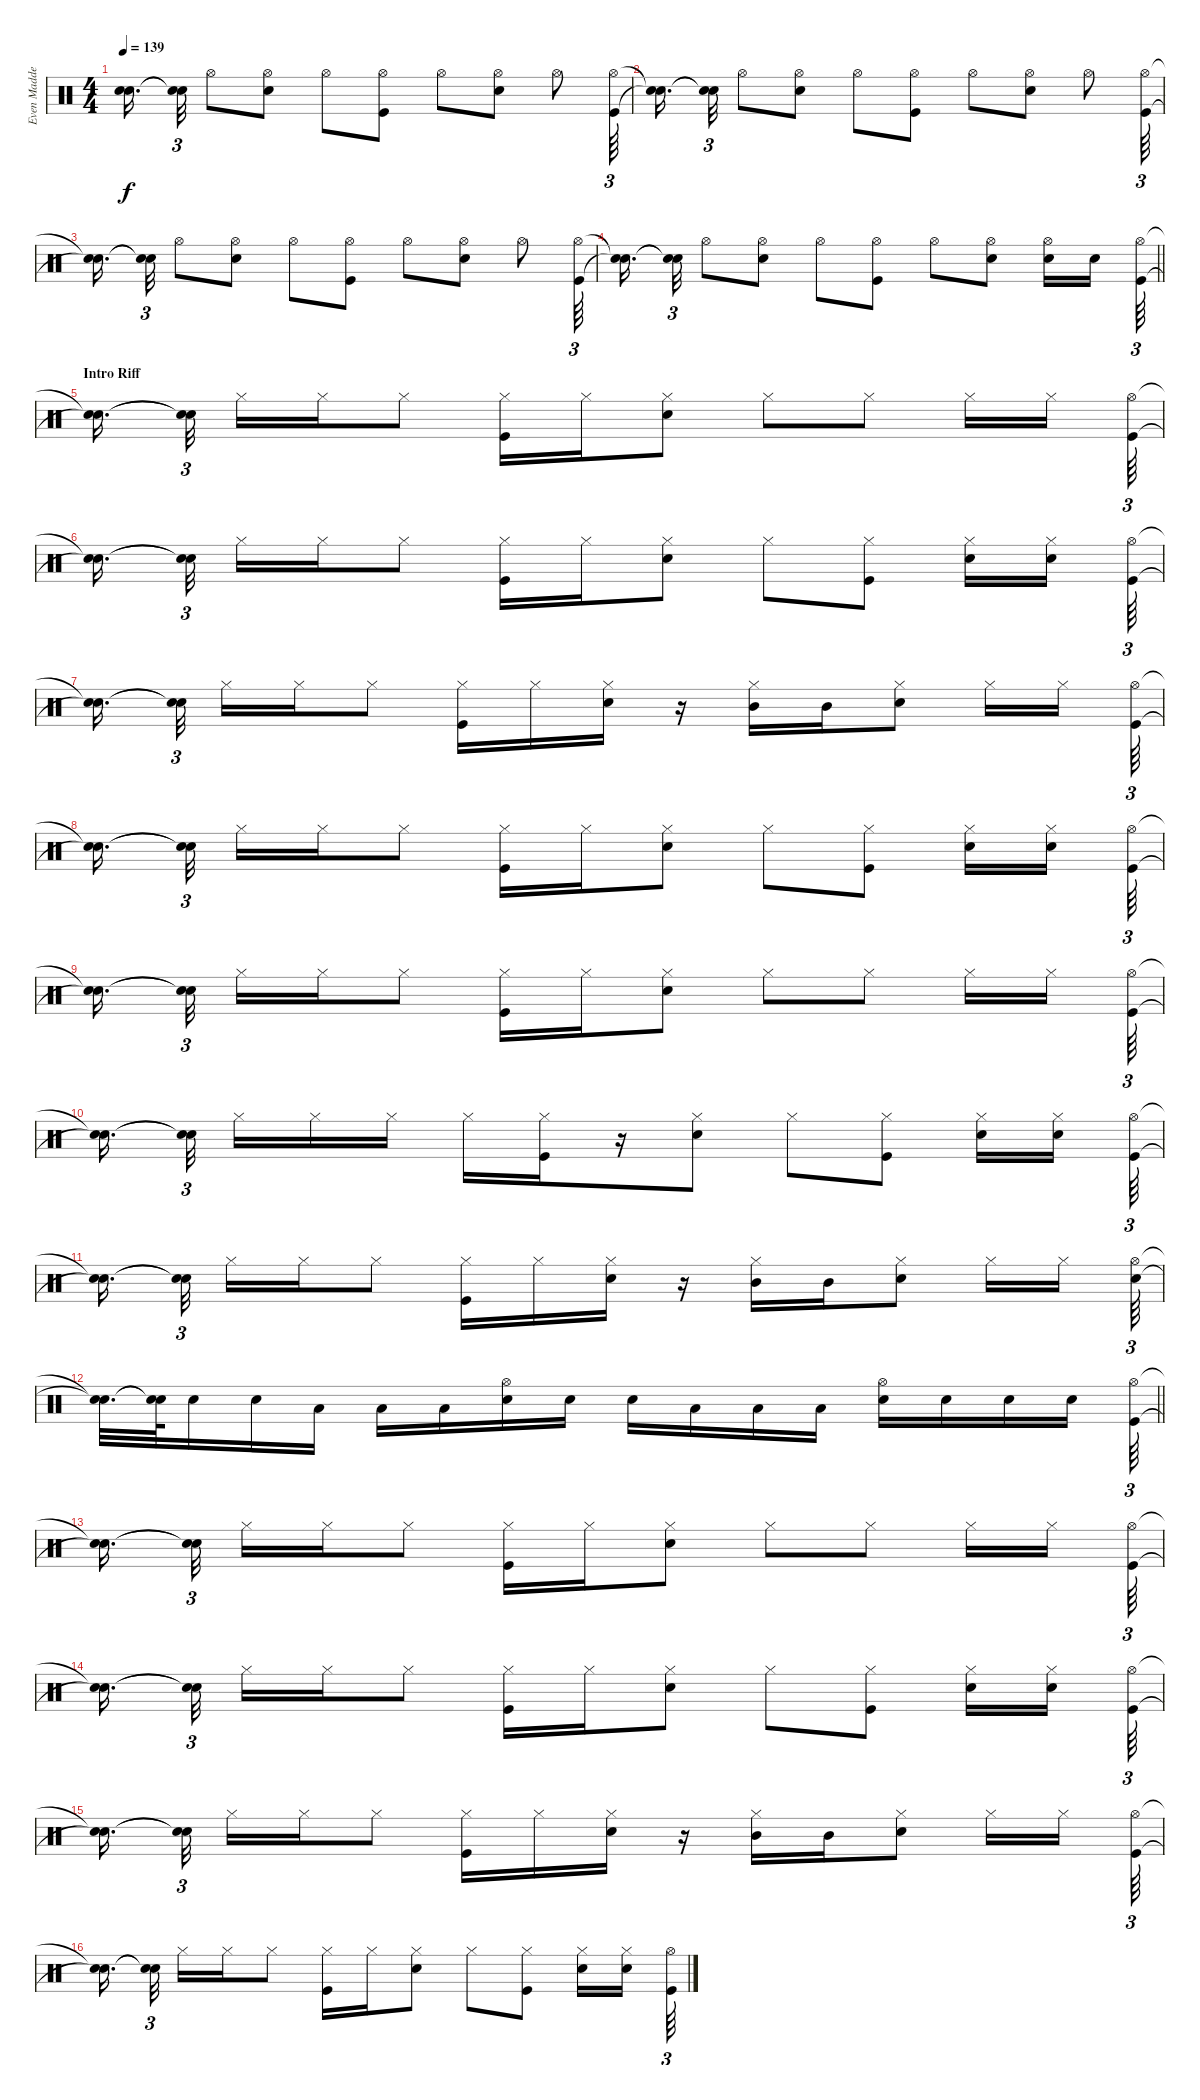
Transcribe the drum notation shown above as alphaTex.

\track ("Even Madden - Drums" "Even Madde") {instrument percussion}
\staff {score}
\articulation defaults
\ts (4 4)
\tempo 139
\clef neutral
\ks c
("Snare (hit)"{t} "Snare (hit)"{t}).16{d dy f beam splitsecondary} ("Snare (hit)"{t} "Snare (hit)"{t}).32{tu (3 2)} "Hi-Hat (open)".8 ("Hi-Hat (open)" "Snare (hit) 2").8 "Hi-Hat (open)".8 ("Hi-Hat (open)" "Kick (hit)").8 "Hi-Hat (open)".8 ("Hi-Hat (open)" "Snare (hit) 2").8 "Hi-Hat (open)".8 ("Hi-Hat (open)" "Kick (hit)").64{tu (3 2)} |
("Snare (hit)"{t} "Snare (hit)"{t}).16{d beam splitsecondary} ("Snare (hit)"{t} "Snare (hit)"{t}).32{tu (3 2)} "Hi-Hat (open)".8 ("Hi-Hat (open)" "Snare (hit) 2").8 "Hi-Hat (open)".8 ("Hi-Hat (open)" "Kick (hit)").8 "Hi-Hat (open)".8 ("Hi-Hat (open)" "Snare (hit) 2").8 "Hi-Hat (open)".8 ("Hi-Hat (open)" "Kick (hit)").64{tu (3 2)} |
("Snare (hit)"{t} "Snare (hit)"{t}).16{d beam splitsecondary} ("Snare (hit)"{t} "Snare (hit)"{t}).32{tu (3 2)} "Hi-Hat (open)".8 ("Hi-Hat (open)" "Snare (hit) 2").8 "Hi-Hat (open)".8 ("Hi-Hat (open)" "Kick (hit)").8 "Hi-Hat (open)".8 ("Hi-Hat (open)" "Snare (hit) 2").8 "Hi-Hat (open)".8 ("Hi-Hat (open)" "Kick (hit)").64{tu (3 2)} |
\barLineRight lightlight
("Snare (hit)"{t} "Snare (hit)"{t}).16{d beam splitsecondary} ("Snare (hit)"{t} "Snare (hit)"{t}).32{tu (3 2)} "Hi-Hat (open)".8 ("Hi-Hat (open)" "Snare (hit) 2").8 "Hi-Hat (open)".8 ("Hi-Hat (open)" "Kick (hit)").8 "Hi-Hat (open)".8 ("Hi-Hat (open)" "Snare (hit) 2").8 ("Hi-Hat (open)" "Snare (hit) 2").16 "Snare (hit) 2".16{beam splitsecondary} ("Hi-Hat (open)" "Kick (hit)").64{tu (3 2)} |
\section ("" "Intro Riff")
("Snare (hit)"{t} "Snare (hit)"{t}).16{d beam splitsecondary} ("Snare (hit)"{t} "Snare (hit)"{t}).32{tu (3 2) beam splitsecondary} "Hi-Hat (closed)".16 "Hi-Hat (closed)".16 "Hi-Hat (closed)".8 ("Kick (hit)" "Hi-Hat (closed)").16 "Hi-Hat (closed)".16 ("Hi-Hat (closed)" "Snare (hit) 2").8 "Hi-Hat (closed)".8 "Hi-Hat (closed)".8 "Hi-Hat (closed)".16 "Hi-Hat (closed)".16{beam splitsecondary} ("Kick (hit)" "Hi-Hat (open)").64{tu (3 2)} |
("Snare (hit)"{t} "Snare (hit)"{t}).16{d beam splitsecondary} ("Snare (hit)"{t} "Snare (hit)"{t}).32{tu (3 2) beam splitsecondary} "Hi-Hat (closed)".16 "Hi-Hat (closed)".16 "Hi-Hat (closed)".8 ("Kick (hit)" "Hi-Hat (closed)").16 "Hi-Hat (closed)".16 ("Hi-Hat (closed)" "Snare (hit) 2").8 "Hi-Hat (closed)".8 ("Hi-Hat (closed)" "Kick (hit)").8 ("Hi-Hat (closed)" "Snare (hit) 2").16 ("Hi-Hat (closed)" "Snare (hit) 2").16{beam splitsecondary} ("Kick (hit)" "Hi-Hat (open)").64{tu (3 2)} |
("Snare (hit)"{t} "Snare (hit)"{t}).16{d beam splitsecondary} ("Snare (hit)"{t} "Snare (hit)"{t}).32{tu (3 2) beam splitsecondary} "Hi-Hat (closed)".16 "Hi-Hat (closed)".16 "Hi-Hat (closed)".8 ("Kick (hit)" "Hi-Hat (closed)").16 "Hi-Hat (closed)".16 ("Hi-Hat (closed)" "Snare (hit) 2").16 r.16 ("Hi-Hat (closed)" "Mid Tom (hit)").16 "Mid Tom (hit)".16 ("Hi-Hat (closed)" "Snare (hit) 2").8 "Hi-Hat (closed)".16 "Hi-Hat (closed)".16{beam splitsecondary} ("Kick (hit)" "Hi-Hat (open)").64{tu (3 2)} |
("Snare (hit)"{t} "Snare (hit)"{t}).16{d beam splitsecondary} ("Snare (hit)"{t} "Snare (hit)"{t}).32{tu (3 2) beam splitsecondary} "Hi-Hat (closed)".16 "Hi-Hat (closed)".16 "Hi-Hat (closed)".8 ("Kick (hit)" "Hi-Hat (closed)").16 "Hi-Hat (closed)".16 ("Hi-Hat (closed)" "Snare (hit) 2").8 "Hi-Hat (closed)".8 ("Hi-Hat (closed)" "Kick (hit)").8 ("Hi-Hat (closed)" "Snare (hit) 2").16 ("Hi-Hat (closed)" "Snare (hit) 2").16{beam splitsecondary} ("Kick (hit)" "Hi-Hat (open)").64{tu (3 2)} |
("Snare (hit)"{t} "Snare (hit)"{t}).16{d beam splitsecondary} ("Snare (hit)"{t} "Snare (hit)"{t}).32{tu (3 2) beam splitsecondary} "Hi-Hat (closed)".16 "Hi-Hat (closed)".16 "Hi-Hat (closed)".8 ("Kick (hit)" "Hi-Hat (closed)").16 "Hi-Hat (closed)".16 ("Hi-Hat (closed)" "Snare (hit) 2").8 "Hi-Hat (closed)".8 "Hi-Hat (closed)".8 "Hi-Hat (closed)".16 "Hi-Hat (closed)".16{beam splitsecondary} ("Kick (hit)" "Hi-Hat (open)").64{tu (3 2)} |
("Snare (hit)"{t} "Snare (hit)"{t}).16{d beam splitsecondary} ("Snare (hit)"{t} "Snare (hit)"{t}).32{tu (3 2) beam splitsecondary} "Hi-Hat (closed)".16 "Hi-Hat (closed)".16 "Hi-Hat (closed)".16 "Hi-Hat (closed)".16 ("Kick (hit)" "Hi-Hat (closed)").16 r.16 ("Hi-Hat (closed)" "Snare (hit) 2").8 "Hi-Hat (closed)".8 ("Hi-Hat (closed)" "Kick (hit)").8 ("Hi-Hat (closed)" "Snare (hit) 2").16 ("Hi-Hat (closed)" "Snare (hit) 2").16{beam splitsecondary} ("Kick (hit)" "Hi-Hat (open)").64{tu (3 2)} |
("Snare (hit)"{t} "Snare (hit)"{t}).16{d beam splitsecondary} ("Snare (hit)"{t} "Snare (hit)"{t}).32{tu (3 2) beam splitsecondary} "Hi-Hat (closed)".16 "Hi-Hat (closed)".16 "Hi-Hat (closed)".8 ("Kick (hit)" "Hi-Hat (closed)").16 "Hi-Hat (closed)".16 ("Hi-Hat (closed)" "Snare (hit) 2").16 r.16 ("Hi-Hat (closed)" "Mid Tom (hit)").16 "Mid Tom (hit)".16 ("Hi-Hat (closed)" "Snare (hit) 2").8 "Hi-Hat (closed)".16 "Hi-Hat (closed)".16{beam splitsecondary} ("Snare (hit) 2" "Hi-Hat (open)").64{tu (3 2)} |
\barLineRight lightlight
("Snare (hit)"{t} "Snare (hit)"{t}).32{d} ("Snare (hit)"{t} "Snare (hit)"{t}).64 "Snare (hit) 2".16 "Snare (hit) 2".16 "Low Tom (hit)".16 "Low Tom (hit)".16 "Low Tom (hit)".16 ("Snare (hit) 2" "Hi-Hat (open)").16 "Snare (hit) 2".16 "Snare (hit) 2".16 "Low Tom (hit)".16 "Low Tom (hit)".16 "Low Tom (hit)".16 ("Snare (hit) 2" "Hi-Hat (open)").16 "Snare (hit) 2".16 "Snare (hit) 2".16 "Snare (hit) 2".16 ("Kick (hit)" "Hi-Hat (open)").64{tu (3 2)} |
("Snare (hit)"{t} "Snare (hit)"{t}).16{d beam splitsecondary} ("Snare (hit)"{t} "Snare (hit)"{t}).32{tu (3 2) beam splitsecondary} "Hi-Hat (closed)".16 "Hi-Hat (closed)".16 "Hi-Hat (closed)".8 ("Kick (hit)" "Hi-Hat (closed)").16 "Hi-Hat (closed)".16 ("Hi-Hat (closed)" "Snare (hit) 2").8 "Hi-Hat (closed)".8 "Hi-Hat (closed)".8 "Hi-Hat (closed)".16 "Hi-Hat (closed)".16{beam splitsecondary} ("Kick (hit)" "Hi-Hat (open)").64{tu (3 2)} |
("Snare (hit)"{t} "Snare (hit)"{t}).16{d beam splitsecondary} ("Snare (hit)"{t} "Snare (hit)"{t}).32{tu (3 2) beam splitsecondary} "Hi-Hat (closed)".16 "Hi-Hat (closed)".16 "Hi-Hat (closed)".8 ("Kick (hit)" "Hi-Hat (closed)").16 "Hi-Hat (closed)".16 ("Hi-Hat (closed)" "Snare (hit) 2").8 "Hi-Hat (closed)".8 ("Hi-Hat (closed)" "Kick (hit)").8 ("Hi-Hat (closed)" "Snare (hit) 2").16 ("Hi-Hat (closed)" "Snare (hit) 2").16{beam splitsecondary} ("Kick (hit)" "Hi-Hat (open)").64{tu (3 2)} |
("Snare (hit)"{t} "Snare (hit)"{t}).16{d beam splitsecondary} ("Snare (hit)"{t} "Snare (hit)"{t}).32{tu (3 2) beam splitsecondary} "Hi-Hat (closed)".16 "Hi-Hat (closed)".16 "Hi-Hat (closed)".8 ("Kick (hit)" "Hi-Hat (closed)").16 "Hi-Hat (closed)".16 ("Hi-Hat (closed)" "Snare (hit) 2").16 r.16 ("Hi-Hat (closed)" "Mid Tom (hit)").16 "Mid Tom (hit)".16 ("Hi-Hat (closed)" "Snare (hit) 2").8 "Hi-Hat (closed)".16 "Hi-Hat (closed)".16{beam splitsecondary} ("Kick (hit)" "Hi-Hat (open)").64{tu (3 2)} |
("Snare (hit)"{t} "Snare (hit)"{t}).16{d beam splitsecondary} ("Snare (hit)"{t} "Snare (hit)"{t}).32{tu (3 2) beam splitsecondary} "Hi-Hat (closed)".16 "Hi-Hat (closed)".16 "Hi-Hat (closed)".8 ("Kick (hit)" "Hi-Hat (closed)").16 "Hi-Hat (closed)".16 ("Hi-Hat (closed)" "Snare (hit) 2").8 "Hi-Hat (closed)".8 ("Hi-Hat (closed)" "Kick (hit)").8 ("Hi-Hat (closed)" "Snare (hit) 2").16 ("Hi-Hat (closed)" "Snare (hit) 2").16{beam splitsecondary} ("Kick (hit)" "Hi-Hat (open)").64{tu (3 2)}
